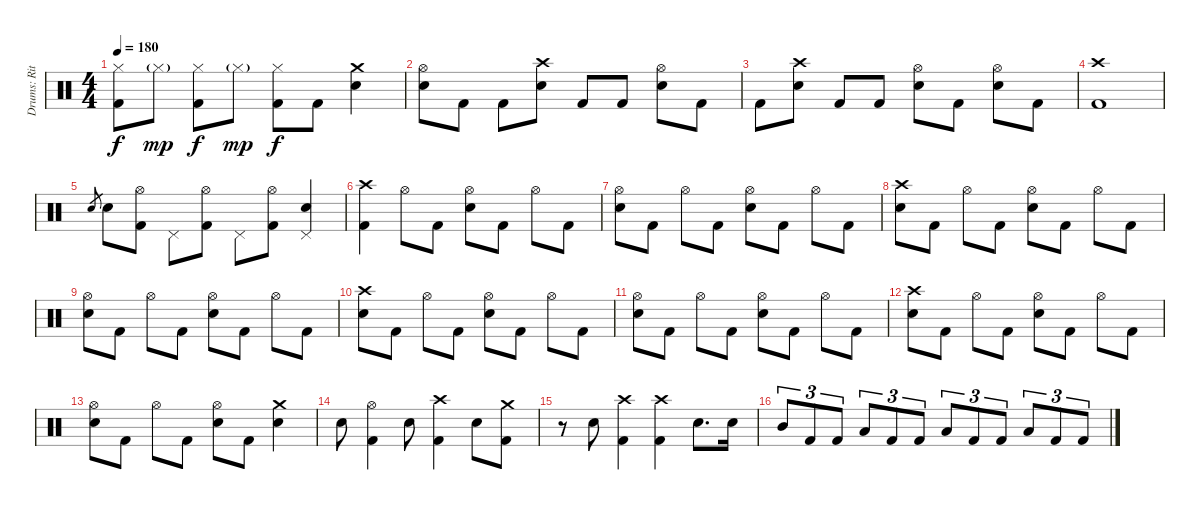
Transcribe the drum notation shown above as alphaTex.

\track ("Drums: Ritsu Tainaka" "Drums: Rit") {instrument percussion}
\staff {score}
\articulation defaults
\ts (4 4)
\tempo 180
\clef neutral
\ks c
("Hi-Hat (closed)" "Kick (hit) 2").8{dy f} "Hi-Hat (closed)"{g}.8{dy mp} ("Hi-Hat (closed)" "Kick (hit) 2").8{dy f} "Hi-Hat (closed)"{g}.8{dy mp} ("Hi-Hat (closed)" "Kick (hit) 2").8{dy f} "Kick (hit) 2".8 ("Crash medium (hit)" "Electric Snare (hit)").4 |
("Hi-Hat (open)" "Electric Snare (hit)").8 "Kick (hit) 2".8 "Kick (hit) 2".8 ("Crash high (hit)" "Electric Snare (hit)").8 "Kick (hit) 2".8 "Kick (hit) 2".8 ("Hi-Hat (open)" "Electric Snare (hit)").8 "Kick (hit) 2".8 |
"Kick (hit) 2".8 ("Crash high (hit)" "Electric Snare (hit)").8 "Kick (hit) 2".8 "Kick (hit) 2".8 ("Hi-Hat (open)" "Electric Snare (hit)").8 "Kick (hit) 2".8 ("Hi-Hat (open)" "Electric Snare (hit)").8 "Kick (hit) 2".8 |
("Crash high (hit)" "Kick (hit) 2").1 |
"Electric Snare (hit)".8{gr} "Electric Snare (hit)".8 ("Hi-Hat (open)" "Kick (hit) 2").8 "Pedal Hi-Hat (hit)".8 ("Hi-Hat (open)" "Kick (hit) 2").8 "Pedal Hi-Hat (hit)".8 ("Hi-Hat (open)" "Kick (hit) 2").8 ("Pedal Hi-Hat (hit)" "Electric Snare (hit)").4 |
("Crash high (hit)" "Kick (hit) 2").4 "Hi-Hat (open)".8 "Kick (hit) 2".8 ("Hi-Hat (open)" "Electric Snare (hit)").8 "Kick (hit) 2".8 "Hi-Hat (open)".8 "Kick (hit) 2".8 |
("Hi-Hat (open)" "Electric Snare (hit)").8 "Kick (hit) 2".8 "Hi-Hat (open)".8 "Kick (hit) 2".8 ("Hi-Hat (open)" "Electric Snare (hit)").8 "Kick (hit) 2".8 "Hi-Hat (open)".8 "Kick (hit) 2".8 |
("Crash high (hit)" "Electric Snare (hit)").8 "Kick (hit) 2".8 "Hi-Hat (open)".8 "Kick (hit) 2".8 ("Hi-Hat (open)" "Electric Snare (hit)").8 "Kick (hit) 2".8 "Hi-Hat (open)".8 "Kick (hit) 2".8 |
("Hi-Hat (open)" "Electric Snare (hit)").8 "Kick (hit) 2".8 "Hi-Hat (open)".8 "Kick (hit) 2".8 ("Hi-Hat (open)" "Electric Snare (hit)").8 "Kick (hit) 2".8 "Hi-Hat (open)".8 "Kick (hit) 2".8 |
("Crash high (hit)" "Electric Snare (hit)").8 "Kick (hit) 2".8 "Hi-Hat (open)".8 "Kick (hit) 2".8 ("Hi-Hat (open)" "Electric Snare (hit)").8 "Kick (hit) 2".8 "Hi-Hat (open)".8 "Kick (hit) 2".8 |
("Hi-Hat (open)" "Electric Snare (hit)").8 "Kick (hit) 2".8 "Hi-Hat (open)".8 "Kick (hit) 2".8 ("Hi-Hat (open)" "Electric Snare (hit)").8 "Kick (hit) 2".8 "Hi-Hat (open)".8 "Kick (hit) 2".8 |
("Crash high (hit)" "Electric Snare (hit)").8 "Kick (hit) 2".8 "Hi-Hat (open)".8 "Kick (hit) 2".8 ("Hi-Hat (open)" "Electric Snare (hit)").8 "Kick (hit) 2".8 "Hi-Hat (open)".8 "Kick (hit) 2".8 |
("Hi-Hat (open)" "Electric Snare (hit)").8 "Kick (hit) 2".8 "Hi-Hat (open)".8 "Kick (hit) 2".8 ("Hi-Hat (open)" "Electric Snare (hit)").8 "Kick (hit) 2".8 ("Crash medium (hit)" "Electric Snare (hit)").4 |
"Electric Snare (hit)".8 ("Hi-Hat (open)" "Kick (hit) 2").4 "Electric Snare (hit)".8 ("Crash high (hit)" "Kick (hit) 2").4 "Electric Snare (hit)".8 ("Crash medium (hit)" "Kick (hit) 2").8 |
r.8 "Electric Snare (hit)".8 ("Crash high (hit)" "Kick (hit) 2").4 ("Crash high (hit)" "Kick (hit) 2").4 "Electric Snare (hit)".8{d} "Electric Snare (hit)".16 |
"Mid Tom (hit)".8{tu (3 2)} "Kick (hit) 2".8{tu (3 2)} "Kick (hit) 2".8{tu (3 2)} "Low Tom (hit)".8{tu (3 2)} "Kick (hit) 2".8{tu (3 2)} "Kick (hit) 2".8{tu (3 2)} "Low Floor Tom (hit)".8{tu (3 2)} "Kick (hit) 2".8{tu (3 2)} "Kick (hit) 2".8{tu (3 2)} "Low Tom (hit)".8{tu (3 2)} "Kick (hit) 2".8{tu (3 2)} "Kick (hit) 2".8{tu (3 2)}
